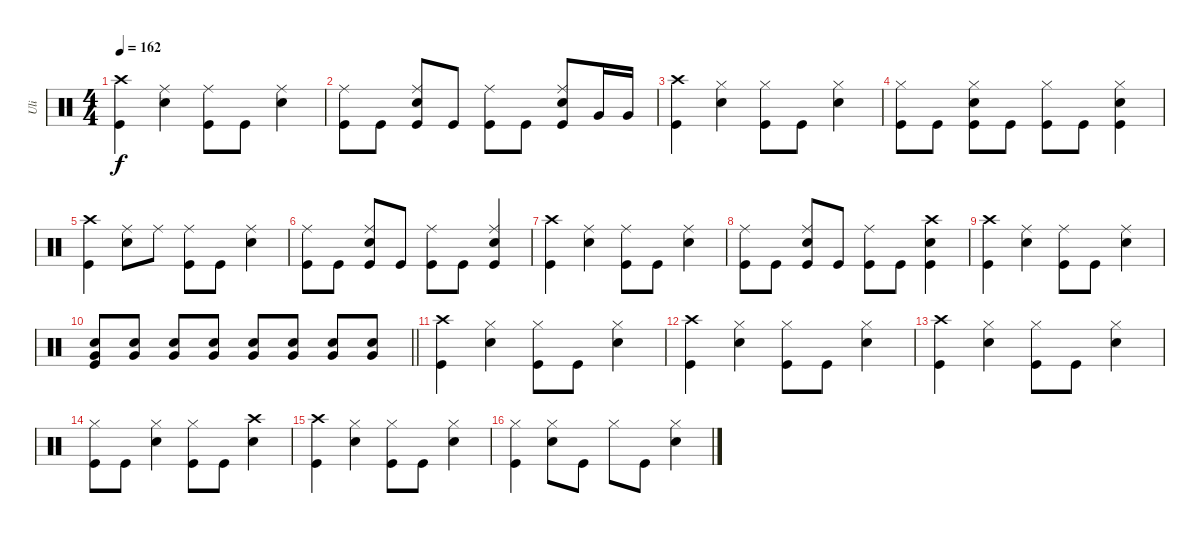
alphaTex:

\track ("Uli" "Uli") {instrument percussion}
\staff {score}
\articulation defaults
\ts (4 4)
\tempo 162
\clef neutral
\ks aminor
("Crash high (hit)" "Kick (hit)").4{dy f} ("Ride (middle)" "Snare (hit) 2").4 ("Ride (middle)" "Kick (hit)").8 "Kick (hit)".8 ("Ride (middle)" "Snare (hit) 2").4 |
("Ride (middle)" "Kick (hit)").8 "Kick (hit)".8 ("Ride (middle)" "Snare (hit) 2" "Kick (hit)").8 "Kick (hit)".8 ("Ride (middle)" "Kick (hit)").8 "Kick (hit)".8 ("Ride (middle)" "Snare (hit) 2" "Kick (hit)").8 "Very Low Tom (hit)".16 "Very Low Tom (hit)".16 |
("Crash high (hit)" "Kick (hit)").4 ("Hi-Hat (closed)" "Snare (hit) 2").4 ("Hi-Hat (closed)" "Kick (hit)").8 "Kick (hit)".8 ("Hi-Hat (closed)" "Snare (hit) 2").4 |
("Hi-Hat (closed)" "Kick (hit)").8 "Kick (hit)".8 ("Hi-Hat (closed)" "Snare (hit) 2" "Kick (hit)").8 "Kick (hit)".8 ("Hi-Hat (closed)" "Kick (hit)").8 "Kick (hit)".8 ("Hi-Hat (closed)" "Snare (hit) 2" "Kick (hit)").4 |
("Crash high (hit)" "Kick (hit)").4 ("Ride (middle)" "Snare (hit) 2").8 "Ride (middle)".8 ("Ride (middle)" "Kick (hit)").8 "Kick (hit)".8 ("Ride (middle)" "Snare (hit) 2").4 |
("Ride (middle)" "Kick (hit)").8 "Kick (hit)".8 ("Ride (middle)" "Snare (hit) 2" "Kick (hit)").8 "Kick (hit)".8 ("Ride (middle)" "Kick (hit)").8 "Kick (hit)".8 ("Ride (middle)" "Snare (hit) 2" "Kick (hit)").4 |
("Crash high (hit)" "Kick (hit)").4 ("Ride (middle)" "Snare (hit) 2").4 ("Ride (middle)" "Kick (hit)").8 "Kick (hit)".8 ("Ride (middle)" "Snare (hit) 2").4 |
("Ride (middle)" "Kick (hit)").8 "Kick (hit)".8 ("Ride (middle)" "Snare (hit) 2" "Kick (hit)").8 "Kick (hit)".8 ("Ride (middle)" "Kick (hit)").8 "Kick (hit)".8 ("Crash high (hit)" "Snare (hit) 2" "Kick (hit)").4 |
("Crash high (hit)" "Kick (hit)").4 ("Ride (middle)" "Snare (hit) 2").4 ("Ride (middle)" "Kick (hit)").8 "Kick (hit)".8 ("Ride (middle)" "Snare (hit) 2").4 |
\barLineRight lightlight
("Snare (hit) 2" "Very Low Tom (hit)" "Kick (hit)").8 ("Snare (hit) 2" "Very Low Tom (hit)").8 ("Snare (hit) 2" "Very Low Tom (hit)").8 ("Snare (hit) 2" "Very Low Tom (hit)").8 ("Snare (hit) 2" "Very Low Tom (hit)").8 ("Snare (hit) 2" "Very Low Tom (hit)").8 ("Snare (hit) 2" "Very Low Tom (hit)").8 ("Snare (hit) 2" "Very Low Tom (hit)").8 |
("Crash high (hit)" "Kick (hit)").4 ("Hi-Hat (closed)" "Snare (hit) 2").4 ("Hi-Hat (closed)" "Kick (hit)").8 "Kick (hit)".8 ("Hi-Hat (closed)" "Snare (hit) 2").4 |
("Crash high (hit)" "Kick (hit)").4 ("Hi-Hat (closed)" "Snare (hit) 2").4 ("Hi-Hat (closed)" "Kick (hit)").8 "Kick (hit)".8 ("Hi-Hat (closed)" "Snare (hit) 2").4 |
("Crash high (hit)" "Kick (hit)").4 ("Hi-Hat (closed)" "Snare (hit) 2").4 ("Hi-Hat (closed)" "Kick (hit)").8 "Kick (hit)".8 ("Hi-Hat (closed)" "Snare (hit) 2").4 |
("Hi-Hat (closed)" "Kick (hit)").8 "Kick (hit)".8 ("Hi-Hat (closed)" "Snare (hit) 2").4 ("Hi-Hat (closed)" "Kick (hit)").8 "Kick (hit)".8 ("Crash high (hit)" "Snare (hit) 2").4 |
("Crash high (hit)" "Kick (hit)").4 ("Hi-Hat (closed)" "Snare (hit) 2").4 ("Hi-Hat (closed)" "Kick (hit)").8 "Kick (hit)".8 ("Hi-Hat (closed)" "Snare (hit) 2").4 |
("Hi-Hat (closed)" "Kick (hit)").4 ("Hi-Hat (closed)" "Snare (hit) 2").8 "Kick (hit)".8 "Hi-Hat (closed)".8 "Kick (hit)".8 ("Hi-Hat (closed)" "Snare (hit) 2").4
